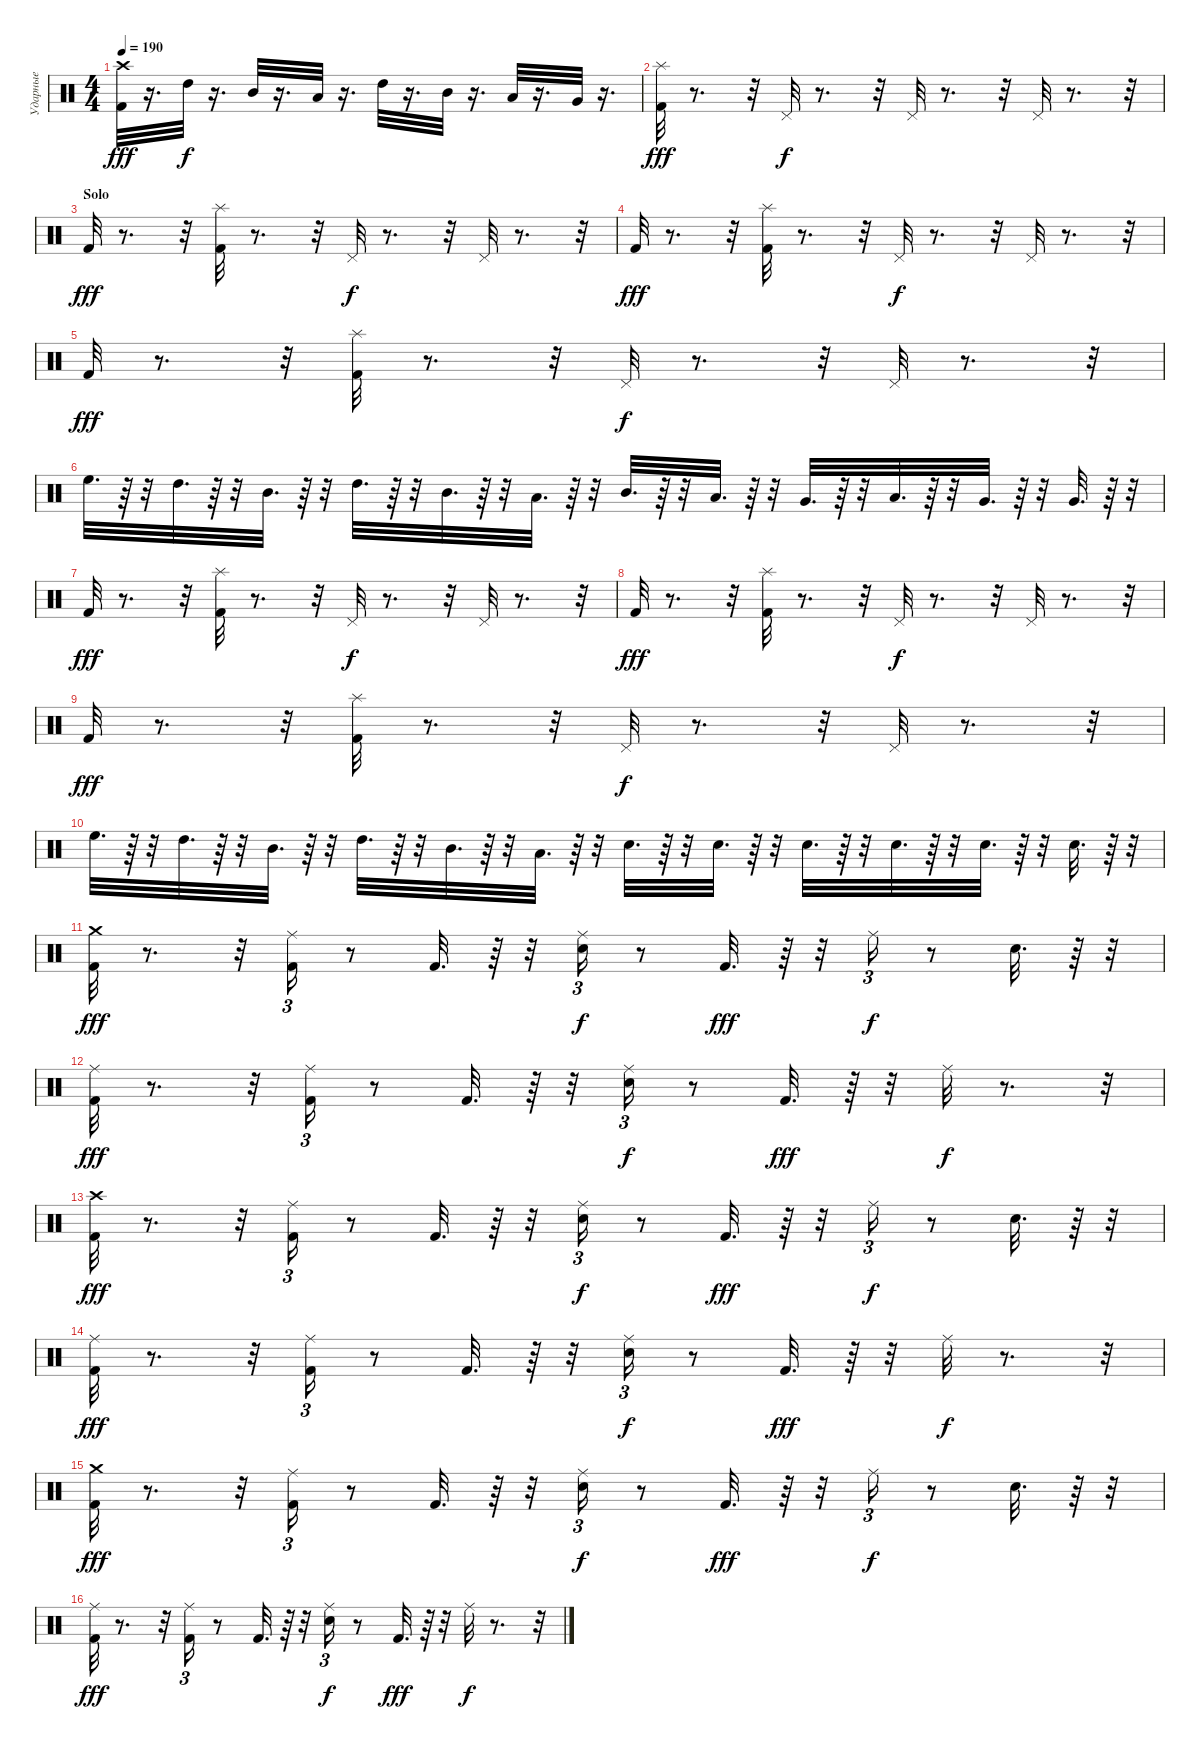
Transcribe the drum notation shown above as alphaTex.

\track ("Ударные" "Ударные") {instrument percussion}
\staff {score}
\articulation defaults
\ts (4 4)
\tempo 190
\clef neutral
\ks c
("Kick (hit) 2" "Crash high (hit)").32{dy fff} r.16{d} "High Tom (hit)".32{dy f} r.16{d} "Mid Tom (hit)".32 r.16{d} "Low Tom (hit)".32 r.16{d} "High Tom (hit)".32 r.16{d} "Mid Tom (hit)".32 r.16{d} "Low Tom (hit)".32 r.16{d} "Very Low Tom (hit)".32 r.16{d} |
("Splash (hit)" "Kick (hit) 2").32{dy fff} r.8{d} r.32 "Pedal Hi-Hat (hit)".32{dy f} r.8{d} r.32 "Pedal Hi-Hat (hit)".32 r.8{d} r.32 "Pedal Hi-Hat (hit)".32 r.8{d} r.32 |
\section ("" "Solo")
"Kick (hit) 2".32{dy fff} r.8{d} r.32 ("Kick (hit) 2" "Splash (hit)").32 r.8{d} r.32 "Pedal Hi-Hat (hit)".32{dy f} r.8{d} r.32 "Pedal Hi-Hat (hit)".32 r.8{d} r.32 |
"Kick (hit) 2".32{dy fff} r.8{d} r.32 ("Splash (hit)" "Kick (hit) 2").32 r.8{d} r.32 "Pedal Hi-Hat (hit)".32{dy f} r.8{d} r.32 "Pedal Hi-Hat (hit)".32 r.8{d} r.32 |
"Kick (hit) 2".32{dy fff} r.8{d} r.32 ("Splash (hit)" "Kick (hit) 2").32 r.8{d} r.32 "Pedal Hi-Hat (hit)".32{dy f} r.8{d} r.32 "Pedal Hi-Hat (hit)".32 r.8{d} r.32 |
"High Floor Tom (hit)".32{d} r.64 r.32 "High Tom (hit)".32{d} r.64 r.32 "Mid Tom (hit)".32{d} r.64 r.32 "High Tom (hit)".32{d} r.64 r.32 "Mid Tom (hit)".32{d} r.64 r.32 "Low Tom (hit)".32{d} r.64 r.32 "Mid Tom (hit)".32{d} r.64 r.32 "Low Tom (hit)".32{d} r.64 r.32 "Very Low Tom (hit)".32{d} r.64 r.32 "Low Tom (hit)".32{d} r.64 r.32 "Very Low Tom (hit)".32{d} r.64 r.32 "Very Low Tom (hit)".32{d} r.64 r.32 |
"Kick (hit) 2".32{dy fff} r.8{d} r.32 ("Kick (hit) 2" "Splash (hit)").32 r.8{d} r.32 "Pedal Hi-Hat (hit)".32{dy f} r.8{d} r.32 "Pedal Hi-Hat (hit)".32 r.8{d} r.32 |
"Kick (hit) 2".32{dy fff} r.8{d} r.32 ("Kick (hit) 2" "Splash (hit)").32 r.8{d} r.32 "Pedal Hi-Hat (hit)".32{dy f} r.8{d} r.32 "Pedal Hi-Hat (hit)".32 r.8{d} r.32 |
"Kick (hit) 2".32{dy fff} r.8{d} r.32 ("Splash (hit)" "Kick (hit) 2").32 r.8{d} r.32 "Pedal Hi-Hat (hit)".32{dy f} r.8{d} r.32 "Pedal Hi-Hat (hit)".32 r.8{d} r.32 |
"High Floor Tom (hit)".32{d} r.64 r.32 "High Tom (hit)".32{d} r.64 r.32 "Mid Tom (hit)".32{d} r.64 r.32 "High Tom (hit)".32{d} r.64 r.32 "Mid Tom (hit)".32{d} r.64 r.32 "Low Tom (hit)".32{d} r.64 r.32 "Snare (hit) 2".32{d} r.64 r.32 "Snare (hit) 2".32{d} r.64 r.32 "Snare (hit) 2".32{d} r.64 r.32 "Snare (hit) 2".32{d} r.64 r.32 "Snare (hit) 2".32{d} r.64 r.32 "Snare (hit) 2".32{d} r.64 r.32 |
("Kick (hit) 2" "Crash medium (hit)").32{dy fff} r.8{d} r.32 ("Kick (hit) 2" "Ride (middle)").16{tu (3 2)} r.8 "Kick (hit) 2".32{d} r.64 r.32 ("Ride (middle)" "Snare (hit) 2").16{tu (3 2) dy f} r.8 "Kick (hit) 2".32{d dy fff} r.64 r.32 "Ride (middle)".16{tu (3 2) dy f} r.8 "Snare (hit) 2".32{d} r.64 r.32 |
("Ride (middle)" "Kick (hit) 2").32{dy fff} r.8{d} r.32 ("Ride (middle)" "Kick (hit) 2").16{tu (3 2)} r.8 "Kick (hit) 2".32{d} r.64 r.32 ("Snare (hit) 2" "Ride (middle)").16{tu (3 2) dy f} r.8 "Kick (hit) 2".32{d dy fff} r.64 r.32 "Ride (middle)".32{dy f} r.8{d} r.32 |
("Kick (hit) 2" "Crash high (hit)").32{dy fff} r.8{d} r.32 ("Kick (hit) 2" "Ride (middle)").16{tu (3 2)} r.8 "Kick (hit) 2".32{d} r.64 r.32 ("Snare (hit) 2" "Ride (middle)").16{tu (3 2) dy f} r.8 "Kick (hit) 2".32{d dy fff} r.64 r.32 "Ride (middle)".16{tu (3 2) dy f} r.8 "Snare (hit) 2".32{d} r.64 r.32 |
("Ride (middle)" "Kick (hit) 2").32{dy fff} r.8{d} r.32 ("Ride (middle)" "Kick (hit) 2").16{tu (3 2)} r.8 "Kick (hit) 2".32{d} r.64 r.32 ("Ride (middle)" "Snare (hit) 2").16{tu (3 2) dy f} r.8 "Kick (hit) 2".32{d dy fff} r.64 r.32 "Ride (middle)".32{dy f} r.8{d} r.32 |
("Kick (hit) 2" "Crash medium (hit)").32{dy fff} r.8{d} r.32 ("Kick (hit) 2" "Ride (middle)").16{tu (3 2)} r.8 "Kick (hit) 2".32{d} r.64 r.32 ("Ride (middle)" "Snare (hit) 2").16{tu (3 2) dy f} r.8 "Kick (hit) 2".32{d dy fff} r.64 r.32 "Ride (middle)".16{tu (3 2) dy f} r.8 "Snare (hit) 2".32{d} r.64 r.32 |
("Ride (middle)" "Kick (hit) 2").32{dy fff} r.8{d} r.32 ("Ride (middle)" "Kick (hit) 2").16{tu (3 2)} r.8 "Kick (hit) 2".32{d} r.64 r.32 ("Snare (hit) 2" "Ride (middle)").16{tu (3 2) dy f} r.8 "Kick (hit) 2".32{d dy fff} r.64 r.32 "Ride (middle)".32{dy f} r.8{d} r.32
